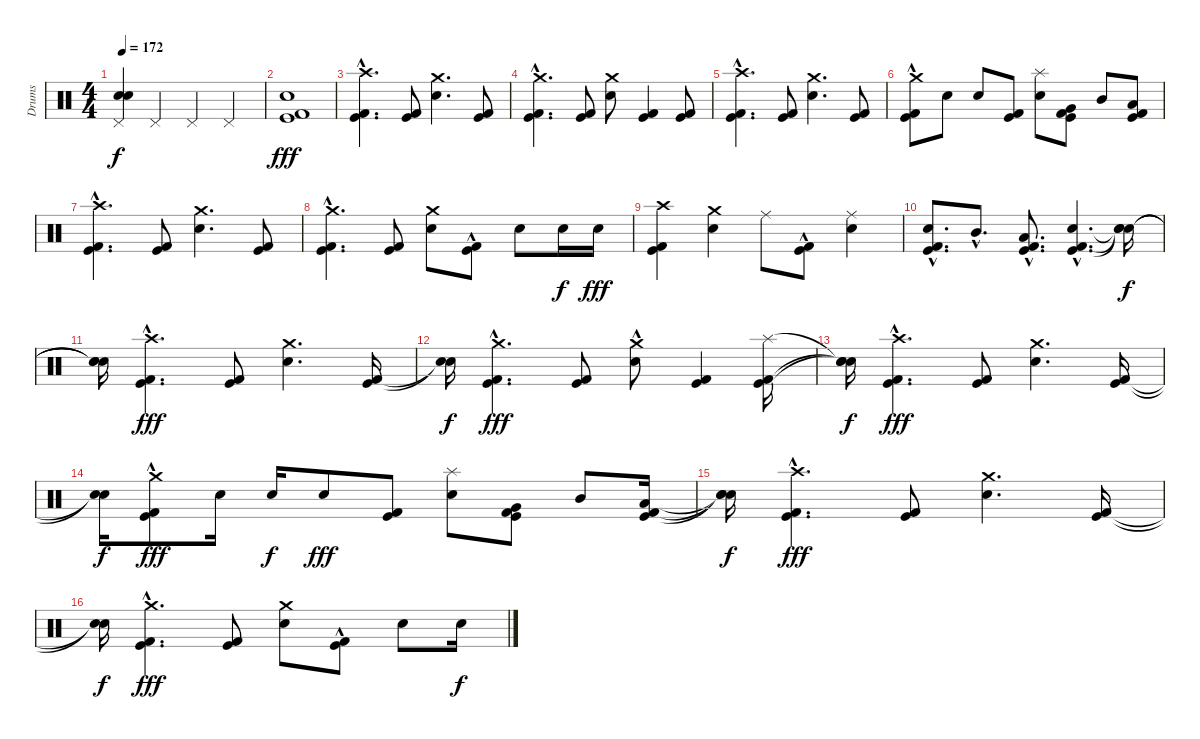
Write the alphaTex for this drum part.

\track ("Drums" "Drums") {instrument percussion}
\staff {score}
\articulation defaults
\ts (4 4)
\tempo 172
\clef neutral
\ks c
("Pedal Hi-Hat (hit)" "Snare (hit)"{t} "Snare (hit)"{t}).4{dy f} "Pedal Hi-Hat (hit)".4 "Pedal Hi-Hat (hit)".4 "Pedal Hi-Hat (hit)".4 |
("Kick (hit)" "Kick (hit) 2" "Electric Snare (hit)").1{dy fff} |
("Kick (hit)"{hac} "Kick (hit) 2"{hac} "Crash high (hit)").4{d} ("Kick (hit)" "Kick (hit) 2").8 ("Electric Snare (hit)" "Crash medium (hit)").4{d} ("Kick (hit)" "Kick (hit) 2").8 |
("Kick (hit)"{hac} "Kick (hit) 2"{hac} "Crash medium (hit)").4{d} ("Kick (hit)" "Kick (hit) 2").8 ("Electric Snare (hit)" "Crash medium (hit)").8 ("Kick (hit)" "Kick (hit) 2").4 ("Kick (hit)" "Kick (hit) 2").8 |
("Kick (hit)"{hac} "Kick (hit) 2"{hac} "Crash high (hit)").4{d} ("Kick (hit)" "Kick (hit) 2").8 ("Electric Snare (hit)" "Crash medium (hit)").4{d} ("Kick (hit)" "Kick (hit) 2").8 |
("Kick (hit)"{hac} "Kick (hit) 2"{hac} "Crash medium (hit)").8 "Electric Snare (hit)".8 "Electric Snare (hit)".8 ("Kick (hit)" "Kick (hit) 2").8 ("Electric Snare (hit)" "Splash (hit)").8 ("Kick (hit)" "Kick (hit) 2" "Very Low Tom (hit)").8 "Mid Tom (hit)".8 ("Kick (hit)" "Kick (hit) 2" "Low Tom (hit)").8 |
("Kick (hit)"{hac} "Kick (hit) 2"{hac} "Crash high (hit)").4{d} ("Kick (hit)" "Kick (hit) 2").8 ("Electric Snare (hit)" "Crash medium (hit)").4{d} ("Kick (hit)" "Kick (hit) 2").8 |
("Kick (hit)"{hac} "Kick (hit) 2"{hac} "Crash medium (hit)").4{d} ("Kick (hit)" "Kick (hit) 2").8 ("Electric Snare (hit)" "Crash medium (hit)").8 ("Kick (hit)"{hac} "Kick (hit) 2"{hac}).8 "Electric Snare (hit)".8 "Electric Snare (hit)".16{dy f} "Electric Snare (hit)".16{dy fff} |
("Kick (hit)" "Kick (hit) 2" "Crash high (hit)").4 ("Electric Snare (hit)" "Crash medium (hit)").4 "Ride (middle)".8 ("Kick (hit)"{hac} "Kick (hit) 2"{hac}).8 ("Electric Snare (hit)" "Ride (middle)").4 |
("Kick (hit)"{hac} "Kick (hit) 2"{hac} "Electric Snare (hit)"{hac}).8{d} "Mid Tom (hit)"{hac}.8{d} ("Kick (hit)"{hac} "Kick (hit) 2"{hac} "Low Tom (hit)"{hac}).8{d} ("Kick (hit)"{hac} "Kick (hit) 2"{hac} "Electric Snare (hit)"{hac}).4{d} ("Snare (hit)"{t} "Snare (hit)"{t} "Snare (hit)"{t}).16{dy f} |
("Snare (hit)"{t} "Snare (hit)"{t} "Snare (hit)"{t}).16 ("Kick (hit)"{hac} "Kick (hit) 2"{hac} "Crash high (hit)").4{d dy fff} ("Kick (hit)" "Kick (hit) 2").8 ("Electric Snare (hit)" "Crash medium (hit)").4{d} ("Kick (hit)" "Kick (hit) 2").16 |
("Snare (hit)"{t} "Snare (hit)"{t}).16{dy f} ("Kick (hit)"{hac} "Kick (hit) 2"{hac} "Crash medium (hit)").4{d dy fff} ("Kick (hit)" "Kick (hit) 2").8 ("Electric Snare (hit)" "Crash medium (hit)"{hac}).8 ("Kick (hit)" "Kick (hit) 2").4 ("Kick (hit)" "Kick (hit) 2" "Splash (hit)").16 |
("Snare (hit)"{t} "Snare (hit)"{t} "Snare (hit)"{t}).16{dy f} ("Kick (hit)"{hac} "Kick (hit) 2"{hac} "Crash high (hit)").4{d dy fff} ("Kick (hit)" "Kick (hit) 2").8 ("Electric Snare (hit)" "Crash medium (hit)").4{d} ("Kick (hit)" "Kick (hit) 2").16 |
("Snare (hit)"{t} "Snare (hit)"{t}).16{dy f} ("Kick (hit)"{hac} "Kick (hit) 2"{hac} "Crash medium (hit)").8{dy fff} "Electric Snare (hit)".16 "Electric Snare (hit)".16{dy f} "Electric Snare (hit)".8{dy fff} ("Kick (hit)" "Kick (hit) 2").8 ("Electric Snare (hit)" "Splash (hit)").8 ("Kick (hit)" "Kick (hit) 2" "Very Low Tom (hit)").8 "Mid Tom (hit)".8 ("Kick (hit)" "Kick (hit) 2" "Low Tom (hit)").16 |
("Snare (hit)"{t} "Snare (hit)"{t} "Snare (hit)"{t}).16{dy f} ("Kick (hit)"{hac} "Kick (hit) 2"{hac} "Crash high (hit)").4{d dy fff} ("Kick (hit)" "Kick (hit) 2").8 ("Electric Snare (hit)" "Crash medium (hit)").4{d} ("Kick (hit)" "Kick (hit) 2").16 |
("Snare (hit)"{t} "Snare (hit)"{t}).16{dy f} ("Kick (hit)"{hac} "Kick (hit) 2"{hac} "Crash medium (hit)").4{d dy fff} ("Kick (hit)" "Kick (hit) 2").8 ("Electric Snare (hit)" "Crash medium (hit)").8 ("Kick (hit)"{hac} "Kick (hit) 2"{hac}).8 "Electric Snare (hit)".8 "Electric Snare (hit)".16{dy f}
